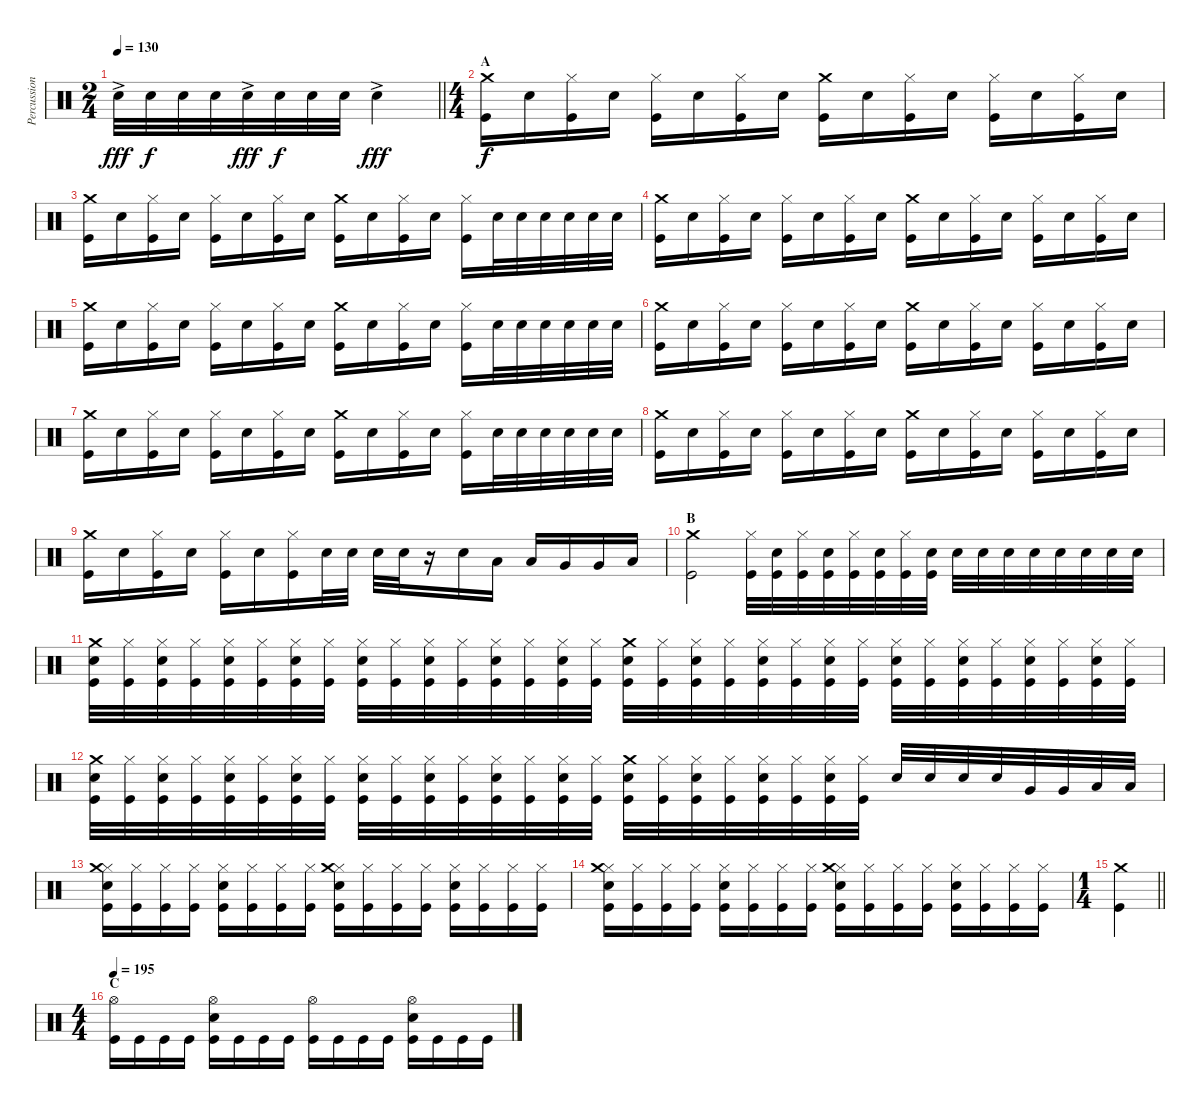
\track ("Percussion" "Percussion") {instrument percussion}
\staff {score}
\articulation defaults
\ts (2 4)
\tempo 130
\clef neutral
\barLineRight lightlight
\ks c "Snare (hit) 2"{ac}.32{dy fff} "Snare (hit) 2".32{dy f} "Snare (hit) 2".32 "Snare (hit) 2".32 "Snare (hit) 2"{ac}.32{dy fff} "Snare (hit) 2".32{dy f} "Snare (hit) 2".32 "Snare (hit) 2".32 "Snare (hit) 2"{ac}.4{dy fff}
|
\ts (4 4)
\section ("" "A")
("Kick (hit)" "Crash medium (hit)").16{dy f} "Snare (hit) 2".16 ("Kick (hit)" "Hi-Hat (closed)").16 "Snare (hit) 2".16 ("Kick (hit)" "Hi-Hat (closed)").16 "Snare (hit) 2".16 ("Kick (hit)" "Hi-Hat (closed)").16 "Snare (hit) 2".16 ("Kick (hit)" "Crash medium (hit)").16 "Snare (hit) 2".16 ("Kick (hit)" "Hi-Hat (closed)").16 "Snare (hit) 2".16 ("Kick (hit)" "Hi-Hat (closed)").16 "Snare (hit) 2".16 ("Kick (hit)" "Hi-Hat (closed)").16 "Snare (hit) 2".16 |
("Kick (hit)" "Crash medium (hit)").16 "Snare (hit) 2".16 ("Kick (hit)" "Hi-Hat (closed)").16 "Snare (hit) 2".16 ("Kick (hit)" "Hi-Hat (closed)").16 "Snare (hit) 2".16 ("Kick (hit)" "Hi-Hat (closed)").16 "Snare (hit) 2".16 ("Kick (hit)" "Crash medium (hit)").16 "Snare (hit) 2".16 ("Kick (hit)" "Hi-Hat (closed)").16 "Snare (hit) 2".16 ("Kick (hit)" "Hi-Hat (closed)").16 "Snare (hit) 2".32 "Snare (hit) 2".32 "Snare (hit) 2".32 "Snare (hit) 2".32 "Snare (hit) 2".32 "Snare (hit) 2".32 |
("Kick (hit)" "Crash medium (hit)").16 "Snare (hit) 2".16 ("Kick (hit)" "Hi-Hat (closed)").16 "Snare (hit) 2".16 ("Kick (hit)" "Hi-Hat (closed)").16 "Snare (hit) 2".16 ("Kick (hit)" "Hi-Hat (closed)").16 "Snare (hit) 2".16 ("Kick (hit)" "Crash medium (hit)").16 "Snare (hit) 2".16 ("Kick (hit)" "Hi-Hat (closed)").16 "Snare (hit) 2".16 ("Kick (hit)" "Hi-Hat (closed)").16 "Snare (hit) 2".16 ("Kick (hit)" "Hi-Hat (closed)").16 "Snare (hit) 2".16 |
("Kick (hit)" "Crash medium (hit)").16 "Snare (hit) 2".16 ("Kick (hit)" "Hi-Hat (closed)").16 "Snare (hit) 2".16 ("Kick (hit)" "Hi-Hat (closed)").16 "Snare (hit) 2".16 ("Kick (hit)" "Hi-Hat (closed)").16 "Snare (hit) 2".16 ("Kick (hit)" "Crash medium (hit)").16 "Snare (hit) 2".16 ("Kick (hit)" "Hi-Hat (closed)").16 "Snare (hit) 2".16 ("Kick (hit)" "Hi-Hat (closed)").16 "Snare (hit) 2".32 "Snare (hit) 2".32 "Snare (hit) 2".32 "Snare (hit) 2".32 "Snare (hit) 2".32 "Snare (hit) 2".32 |
("Kick (hit)" "Crash medium (hit)").16 "Snare (hit) 2".16 ("Kick (hit)" "Hi-Hat (closed)").16 "Snare (hit) 2".16 ("Kick (hit)" "Hi-Hat (closed)").16 "Snare (hit) 2".16 ("Kick (hit)" "Hi-Hat (closed)").16 "Snare (hit) 2".16 ("Kick (hit)" "Crash medium (hit)").16 "Snare (hit) 2".16 ("Kick (hit)" "Hi-Hat (closed)").16 "Snare (hit) 2".16 ("Kick (hit)" "Hi-Hat (closed)").16 "Snare (hit) 2".16 ("Kick (hit)" "Hi-Hat (closed)").16 "Snare (hit) 2".16 |
("Kick (hit)" "Crash medium (hit)").16 "Snare (hit) 2".16 ("Kick (hit)" "Hi-Hat (closed)").16 "Snare (hit) 2".16 ("Kick (hit)" "Hi-Hat (closed)").16 "Snare (hit) 2".16 ("Kick (hit)" "Hi-Hat (closed)").16 "Snare (hit) 2".16 ("Kick (hit)" "Crash medium (hit)").16 "Snare (hit) 2".16 ("Kick (hit)" "Hi-Hat (closed)").16 "Snare (hit) 2".16 ("Kick (hit)" "Hi-Hat (closed)").16 "Snare (hit) 2".32 "Snare (hit) 2".32 "Snare (hit) 2".32 "Snare (hit) 2".32 "Snare (hit) 2".32 "Snare (hit) 2".32 |
("Kick (hit)" "Crash medium (hit)").16 "Snare (hit) 2".16 ("Kick (hit)" "Hi-Hat (closed)").16 "Snare (hit) 2".16 ("Kick (hit)" "Hi-Hat (closed)").16 "Snare (hit) 2".16 ("Kick (hit)" "Hi-Hat (closed)").16 "Snare (hit) 2".16 ("Kick (hit)" "Crash medium (hit)").16 "Snare (hit) 2".16 ("Kick (hit)" "Hi-Hat (closed)").16 "Snare (hit) 2".16 ("Kick (hit)" "Hi-Hat (closed)").16 "Snare (hit) 2".16 ("Kick (hit)" "Hi-Hat (closed)").16 "Snare (hit) 2".16 |
("Kick (hit)" "Crash medium (hit)").16 "Snare (hit) 2".16 ("Kick (hit)" "Hi-Hat (closed)").16 "Snare (hit) 2".16 ("Kick (hit)" "Hi-Hat (closed)").16 "Snare (hit) 2".16 ("Kick (hit)" "Hi-Hat (closed)").16 "Snare (hit) 2".32 "Snare (hit) 2".32 "Snare (hit) 2".32 "Snare (hit) 2".32 r.16 "Snare (hit) 2".16 "Low Tom (hit)".16 "Low Tom (hit)".16 "Very Low Tom (hit)".16 "Very Low Tom (hit)".16 "Low Floor Tom (hit)".16 |
\section ("" "B")
("Kick (hit)" "Crash medium (hit)").2 ("Kick (hit)" "Hi-Hat (closed)").32 ("Kick (hit)" "Snare (hit) 2").32 ("Kick (hit)" "Hi-Hat (closed)").32 ("Kick (hit)" "Snare (hit) 2").32 ("Kick (hit)" "Hi-Hat (closed)").32 ("Kick (hit)" "Snare (hit) 2").32 ("Kick (hit)" "Hi-Hat (closed)").32 ("Kick (hit)" "Snare (hit) 2").32 "Snare (hit) 2".32 "Snare (hit) 2".32 "Snare (hit) 2".32 "Snare (hit) 2".32 "Snare (hit) 2".32 "Snare (hit) 2".32 "Snare (hit) 2".32 "Snare (hit) 2".32 |
("Kick (hit)" "Snare (hit) 2" "Crash medium (hit)").32 ("Kick (hit)" "Hi-Hat (closed)").32 ("Kick (hit)" "Snare (hit) 2" "Hi-Hat (closed)").32 ("Kick (hit)" "Hi-Hat (closed)").32 ("Kick (hit)" "Snare (hit) 2" "Hi-Hat (closed)").32 ("Kick (hit)" "Hi-Hat (closed)").32 ("Kick (hit)" "Snare (hit) 2" "Hi-Hat (closed)").32 ("Kick (hit)" "Hi-Hat (closed)").32 ("Kick (hit)" "Snare (hit) 2" "Hi-Hat (closed)").32 ("Kick (hit)" "Hi-Hat (closed)").32 ("Kick (hit)" "Snare (hit) 2" "Hi-Hat (closed)").32 ("Kick (hit)" "Hi-Hat (closed)").32 ("Kick (hit)" "Snare (hit) 2" "Hi-Hat (closed)").32 ("Kick (hit)" "Hi-Hat (closed)").32 ("Kick (hit)" "Snare (hit) 2" "Hi-Hat (closed)").32 ("Kick (hit)" "Hi-Hat (closed)").32 ("Kick (hit)" "Snare (hit) 2" "Crash medium (hit)").32 ("Kick (hit)" "Hi-Hat (closed)").32 ("Kick (hit)" "Snare (hit) 2" "Hi-Hat (closed)").32 ("Kick (hit)" "Hi-Hat (closed)").32 ("Kick (hit)" "Snare (hit) 2" "Hi-Hat (closed)").32 ("Kick (hit)" "Hi-Hat (closed)").32 ("Kick (hit)" "Snare (hit) 2" "Hi-Hat (closed)").32 ("Kick (hit)" "Hi-Hat (closed)").32 ("Kick (hit)" "Snare (hit) 2" "Hi-Hat (closed)").32 ("Kick (hit)" "Hi-Hat (closed)").32 ("Kick (hit)" "Snare (hit) 2" "Hi-Hat (closed)").32 ("Kick (hit)" "Hi-Hat (closed)").32 ("Kick (hit)" "Snare (hit) 2" "Hi-Hat (closed)").32 ("Kick (hit)" "Hi-Hat (closed)").32 ("Kick (hit)" "Snare (hit) 2" "Hi-Hat (closed)").32 ("Kick (hit)" "Hi-Hat (closed)").32 |
("Kick (hit)" "Snare (hit) 2" "Crash medium (hit)").32 ("Kick (hit)" "Hi-Hat (closed)").32 ("Kick (hit)" "Snare (hit) 2" "Hi-Hat (closed)").32 ("Kick (hit)" "Hi-Hat (closed)").32 ("Kick (hit)" "Snare (hit) 2" "Hi-Hat (closed)").32 ("Kick (hit)" "Hi-Hat (closed)").32 ("Kick (hit)" "Snare (hit) 2" "Hi-Hat (closed)").32 ("Kick (hit)" "Hi-Hat (closed)").32 ("Kick (hit)" "Snare (hit) 2" "Hi-Hat (closed)").32 ("Kick (hit)" "Hi-Hat (closed)").32 ("Kick (hit)" "Snare (hit) 2" "Hi-Hat (closed)").32 ("Kick (hit)" "Hi-Hat (closed)").32 ("Kick (hit)" "Snare (hit) 2" "Hi-Hat (closed)").32 ("Kick (hit)" "Hi-Hat (closed)").32 ("Kick (hit)" "Snare (hit) 2" "Hi-Hat (closed)").32 ("Kick (hit)" "Hi-Hat (closed)").32 ("Kick (hit)" "Snare (hit) 2" "Crash medium (hit)").32 ("Kick (hit)" "Hi-Hat (closed)").32 ("Kick (hit)" "Snare (hit) 2" "Hi-Hat (closed)").32 ("Kick (hit)" "Hi-Hat (closed)").32 ("Kick (hit)" "Snare (hit) 2" "Hi-Hat (closed)").32 ("Kick (hit)" "Hi-Hat (closed)").32 ("Kick (hit)" "Snare (hit) 2" "Hi-Hat (closed)").32 ("Kick (hit)" "Hi-Hat (closed)").32 "Snare (hit) 2".32 "Snare (hit) 2".32 "Snare (hit) 2".32 "Snare (hit) 2".32 "Very Low Tom (hit)".32 "Very Low Tom (hit)".32 "Low Floor Tom (hit)".32 "Low Floor Tom (hit)".32 |
("Kick (hit)" "Hi-Hat (closed)" "Snare (hit) 2" "Crash medium (hit)").16 ("Kick (hit)" "Hi-Hat (closed)").16 ("Kick (hit)" "Hi-Hat (closed)").16 ("Kick (hit)" "Hi-Hat (closed)").16 ("Kick (hit)" "Hi-Hat (closed)" "Snare (hit) 2").16 ("Kick (hit)" "Hi-Hat (closed)").16 ("Kick (hit)" "Hi-Hat (closed)").16 ("Kick (hit)" "Hi-Hat (closed)").16 ("Kick (hit)" "Hi-Hat (closed)" "Snare (hit) 2" "Crash medium (hit)").16 ("Kick (hit)" "Hi-Hat (closed)").16 ("Kick (hit)" "Hi-Hat (closed)").16 ("Kick (hit)" "Hi-Hat (closed)").16 ("Kick (hit)" "Hi-Hat (closed)" "Snare (hit) 2").16 ("Kick (hit)" "Hi-Hat (closed)").16 ("Kick (hit)" "Hi-Hat (closed)").16 ("Kick (hit)" "Hi-Hat (closed)").16 |
("Kick (hit)" "Hi-Hat (closed)" "Snare (hit) 2" "Crash medium (hit)").16 ("Kick (hit)" "Hi-Hat (closed)").16 ("Kick (hit)" "Hi-Hat (closed)").16 ("Kick (hit)" "Hi-Hat (closed)").16 ("Kick (hit)" "Hi-Hat (closed)" "Snare (hit) 2").16 ("Kick (hit)" "Hi-Hat (closed)").16 ("Kick (hit)" "Hi-Hat (closed)").16 ("Kick (hit)" "Hi-Hat (closed)").16 ("Kick (hit)" "Hi-Hat (closed)" "Snare (hit) 2" "Crash medium (hit)").16 ("Kick (hit)" "Hi-Hat (closed)").16 ("Kick (hit)" "Hi-Hat (closed)").16 ("Kick (hit)" "Hi-Hat (closed)").16 ("Kick (hit)" "Hi-Hat (closed)" "Snare (hit) 2").16 ("Kick (hit)" "Hi-Hat (closed)").16 ("Kick (hit)" "Hi-Hat (closed)").16 ("Kick (hit)" "Hi-Hat (closed)").16 |
\ts (1 4)
\barLineRight lightlight
("Kick (hit)" "Crash medium (hit)").4 |
\ts (4 4)
\section ("" "C")
\tempo 195
("Kick (hit)" "Hi-Hat (open)").16 "Kick (hit)".16 "Kick (hit)".16 "Kick (hit)".16 ("Kick (hit)" "Snare (hit) 2" "Hi-Hat (open)").16 "Kick (hit)".16 "Kick (hit)".16 "Kick (hit)".16 ("Kick (hit)" "Hi-Hat (open)").16 "Kick (hit)".16 "Kick (hit)".16 "Kick (hit)".16 ("Kick (hit)" "Snare (hit) 2" "Hi-Hat (open)").16 "Kick (hit)".16 "Kick (hit)".16 "Kick (hit)".16
